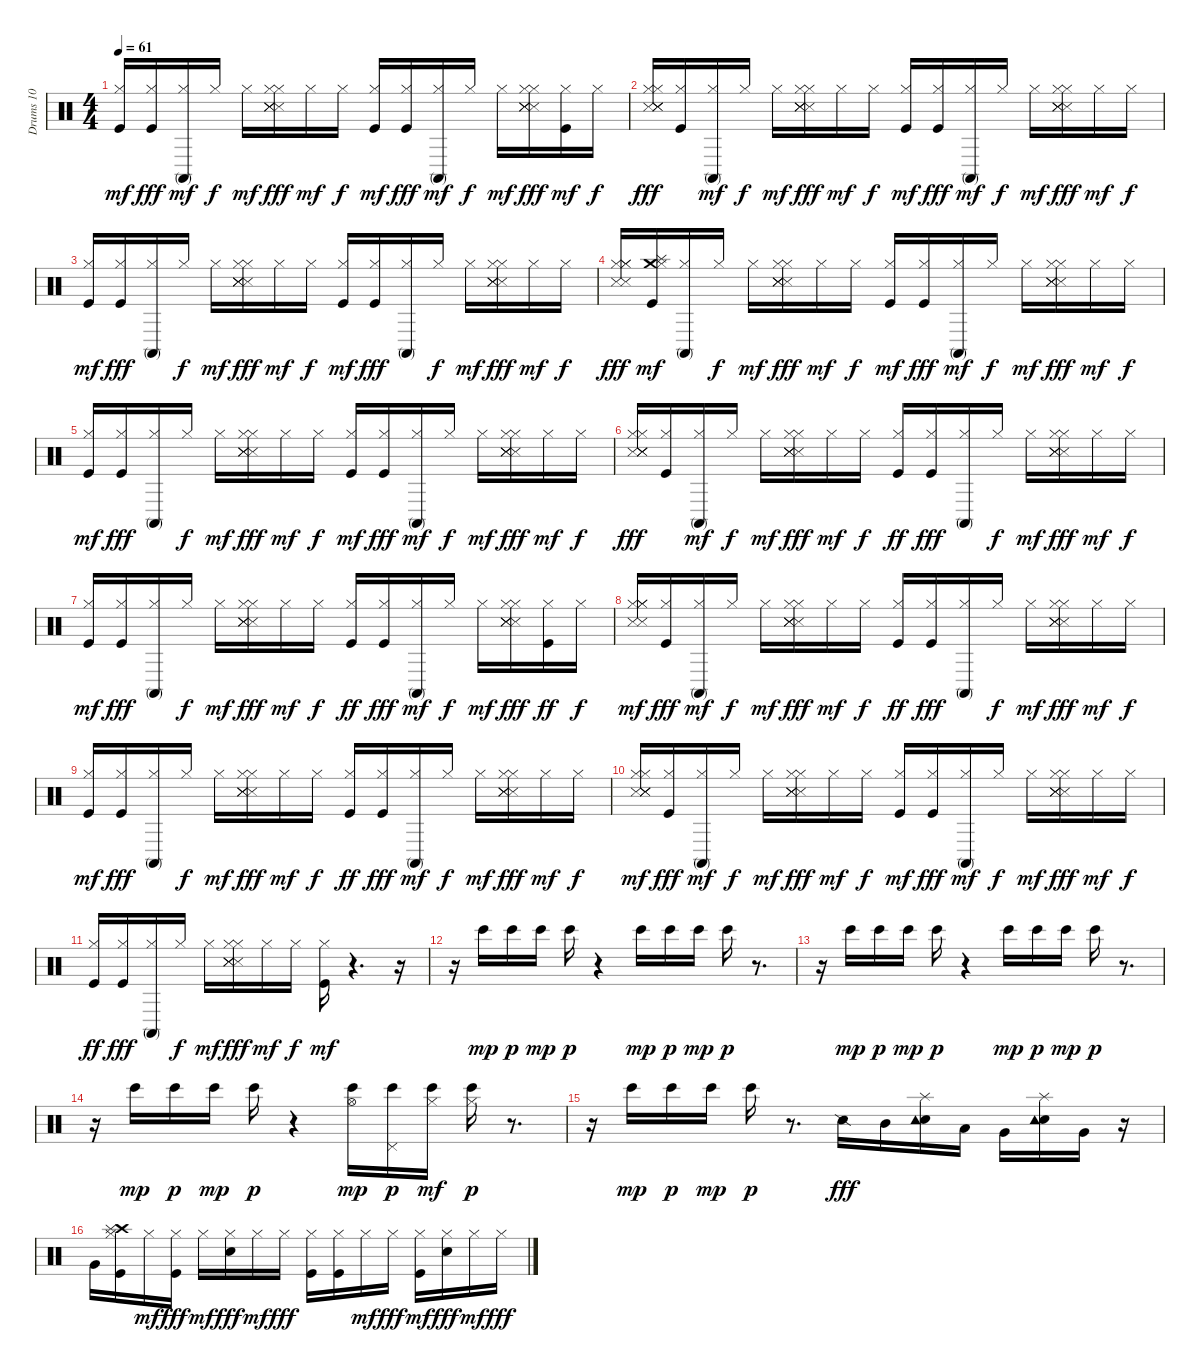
\track ("Drums 10" "Drums 10") {instrument percussion}
\staff {score}
\articulation defaults
\ts (4 4)
\tempo 61
\clef neutral
\ks c
("Kick (hit)" "Hi-Hat (closed)").16{dy mf} ("Kick (hit)" "Hi-Hat (closed)").16{dy fff} ("Conga high (mute)" "Hi-Hat (closed)").16{dy mf} "Hi-Hat (closed)".16{dy f} "Hi-Hat (closed)".16{dy mf} ("Snare (side stick) 3" "Snare (side stick) 3" "Snare (side stick) 3" "Snare (side stick) 3" "Hi-Hat (closed)" "Hi-Hat (closed)").16{dy fff} "Hi-Hat (closed)".16{dy mf} "Hi-Hat (closed)".16{dy f} ("Kick (hit)" "Hi-Hat (closed)").16{dy mf} ("Kick (hit)" "Hi-Hat (closed)").16{dy fff} ("Conga high (mute)" "Hi-Hat (closed)").16{dy mf} "Hi-Hat (closed)".16{dy f} "Hi-Hat (closed)".16{dy mf} ("Snare (side stick) 3" "Snare (side stick) 3" "Snare (side stick) 3" "Snare (side stick) 3" "Hi-Hat (closed)" "Hi-Hat (closed)").16{dy fff} ("Kick (hit)" "Hi-Hat (closed)").16{dy mf} "Hi-Hat (closed)".16{dy f} |
("Snare (side stick) 3" "Snare (side stick) 3" "Snare (side stick) 3" "Snare (side stick) 3" "Hi-Hat (closed)" "Hi-Hat (closed)").16{dy fff} ("Kick (hit)" "Hi-Hat (closed)").16 ("Conga high (mute)" "Hi-Hat (closed)").16{dy mf} "Hi-Hat (closed)".16{dy f} "Hi-Hat (closed)".16{dy mf} ("Snare (side stick) 3" "Snare (side stick) 3" "Snare (side stick) 3" "Snare (side stick) 3" "Hi-Hat (closed)" "Hi-Hat (closed)").16{dy fff} "Hi-Hat (closed)".16{dy mf} "Hi-Hat (closed)".16{dy f} ("Kick (hit)" "Hi-Hat (closed)").16{dy mf} ("Kick (hit)" "Hi-Hat (closed)").16{dy fff} ("Conga high (mute)" "Hi-Hat (closed)").16{dy mf} "Hi-Hat (closed)".16{dy f} "Hi-Hat (closed)".16{dy mf} ("Snare (side stick) 3" "Snare (side stick) 3" "Snare (side stick) 3" "Snare (side stick) 3" "Hi-Hat (closed)" "Hi-Hat (closed)").16{dy fff} "Hi-Hat (closed)".16{dy mf} "Hi-Hat (closed)".16{dy f} |
("Kick (hit)" "Hi-Hat (closed)").16{dy mf} ("Hi-Hat (closed)" "Kick (hit)").16{dy fff} ("Hi-Hat (closed)" "Conga high (mute)").16 "Hi-Hat (closed)".16{dy f} "Hi-Hat (closed)".16{dy mf} ("Snare (side stick) 3" "Snare (side stick) 3" "Snare (side stick) 3" "Snare (side stick) 3" "Hi-Hat (closed)" "Hi-Hat (closed)").16{dy fff} "Hi-Hat (closed)".16{dy mf} "Hi-Hat (closed)".16{dy f} ("Kick (hit)" "Hi-Hat (closed)").16{dy mf} ("Hi-Hat (closed)" "Kick (hit)").16{dy fff} ("Hi-Hat (closed)" "Conga high (mute)").16 "Hi-Hat (closed)".16{dy f} "Hi-Hat (closed)".16{dy mf} ("Snare (side stick) 3" "Snare (side stick) 3" "Snare (side stick) 3" "Snare (side stick) 3" "Hi-Hat (closed)" "Hi-Hat (closed)").16{dy fff} "Hi-Hat (closed)".16{dy mf} "Hi-Hat (closed)".16{dy f} |
("Snare (side stick) 3" "Snare (side stick) 3" "Hi-Hat (closed)" "Hi-Hat (closed)" "Hi-Hat (closed)").16{dy fff} ("Kick (hit)" "Crash medium (hit)" "Splash (hit)" "Hi-Hat (closed)").16{dy mf} ("Conga high (mute)" "Hi-Hat (closed)").16 "Hi-Hat (closed)".16{dy f} "Hi-Hat (closed)".16{dy mf} ("Snare (side stick) 3" "Snare (side stick) 3" "Hi-Hat (closed)" "Hi-Hat (closed)" "Snare (side stick) 3" "Snare (side stick) 3").16{dy fff} "Hi-Hat (closed)".16{dy mf} "Hi-Hat (closed)".16{dy f} ("Kick (hit)" "Hi-Hat (closed)").16{dy mf} ("Kick (hit)" "Hi-Hat (closed)").16{dy fff} ("Conga high (mute)" "Hi-Hat (closed)").16{dy mf} "Hi-Hat (closed)".16{dy f} "Hi-Hat (closed)".16{dy mf} ("Hi-Hat (closed)" "Snare (side stick) 3" "Snare (side stick) 3" "Snare (side stick) 3" "Snare (side stick) 3" "Hi-Hat (closed)").16{dy fff} "Hi-Hat (closed)".16{dy mf} "Hi-Hat (closed)".16{dy f} |
("Kick (hit)" "Hi-Hat (closed)").16{dy mf} ("Kick (hit)" "Hi-Hat (closed)").16{dy fff} ("Hi-Hat (closed)" "Conga high (mute)").16 "Hi-Hat (closed)".16{dy f} "Hi-Hat (closed)".16{dy mf} ("Hi-Hat (closed)" "Snare (side stick) 3" "Snare (side stick) 3" "Snare (side stick) 3" "Snare (side stick) 3" "Hi-Hat (closed)").16{dy fff} "Hi-Hat (closed)".16{dy mf} "Hi-Hat (closed)".16{dy f} ("Kick (hit)" "Hi-Hat (closed)").16{dy mf} ("Hi-Hat (closed)" "Kick (hit)").16{dy fff} ("Conga high (mute)" "Hi-Hat (closed)").16{dy mf} "Hi-Hat (closed)".16{dy f} "Hi-Hat (closed)".16{dy mf} ("Hi-Hat (closed)" "Snare (side stick) 3" "Snare (side stick) 3" "Snare (side stick) 3" "Snare (side stick) 3" "Hi-Hat (closed)").16{dy fff} "Hi-Hat (closed)".16{dy mf} "Hi-Hat (closed)".16{dy f} |
("Hi-Hat (closed)" "Snare (side stick) 3" "Snare (side stick) 3" "Snare (side stick) 3" "Snare (side stick) 3" "Hi-Hat (closed)").16{dy fff} ("Hi-Hat (closed)" "Kick (hit)").16 ("Conga high (mute)" "Hi-Hat (closed)").16{dy mf} "Hi-Hat (closed)".16{dy f} "Hi-Hat (closed)".16{dy mf} ("Snare (side stick) 3" "Snare (side stick) 3" "Snare (side stick) 3" "Snare (side stick) 3" "Hi-Hat (closed)" "Hi-Hat (closed)").16{dy fff} "Hi-Hat (closed)".16{dy mf} "Hi-Hat (closed)".16{dy f} ("Hi-Hat (closed)" "Kick (hit)").16{dy ff} ("Hi-Hat (closed)" "Kick (hit)").16{dy fff} ("Hi-Hat (closed)" "Conga high (mute)").16 "Hi-Hat (closed)".16{dy f} "Hi-Hat (closed)".16{dy mf} ("Hi-Hat (closed)" "Snare (side stick) 3" "Snare (side stick) 3" "Snare (side stick) 3" "Snare (side stick) 3" "Hi-Hat (closed)").16{dy fff} "Hi-Hat (closed)".16{dy mf} "Hi-Hat (closed)".16{dy f} |
("Kick (hit)" "Hi-Hat (closed)").16{dy mf} ("Kick (hit)" "Hi-Hat (closed)").16{dy fff} ("Hi-Hat (closed)" "Conga high (mute)").16 "Hi-Hat (closed)".16{dy f} "Hi-Hat (closed)".16{dy mf} ("Hi-Hat (closed)" "Snare (side stick) 3" "Snare (side stick) 3" "Snare (side stick) 3" "Snare (side stick) 3" "Hi-Hat (closed)").16{dy fff} "Hi-Hat (closed)".16{dy mf} "Hi-Hat (closed)".16{dy f} ("Hi-Hat (closed)" "Kick (hit)").16{dy ff} ("Kick (hit)" "Hi-Hat (closed)").16{dy fff} ("Conga high (mute)" "Hi-Hat (closed)").16{dy mf} "Hi-Hat (closed)".16{dy f} "Hi-Hat (closed)".16{dy mf} ("Snare (side stick) 3" "Hi-Hat (closed)" "Snare (side stick) 3" "Snare (side stick) 3" "Snare (side stick) 3" "Hi-Hat (closed)").16{dy fff} ("Hi-Hat (closed)" "Kick (hit)").16{dy ff} "Hi-Hat (closed)".16{dy f} |
("Hi-Hat (closed)" "Snare (side stick) 3" "Snare (side stick) 3" "Hi-Hat (closed)" "Hi-Hat (closed)").16{dy mf} ("Hi-Hat (closed)" "Kick (hit)").16{dy fff} ("Conga high (mute)" "Hi-Hat (closed)").16{dy mf} "Hi-Hat (closed)".16{dy f} "Hi-Hat (closed)".16{dy mf} ("Hi-Hat (closed)" "Hi-Hat (closed)" "Snare (side stick) 3" "Snare (side stick) 3" "Snare (side stick) 3" "Snare (side stick) 3").16{dy fff} "Hi-Hat (closed)".16{dy mf} "Hi-Hat (closed)".16{dy f} ("Hi-Hat (closed)" "Kick (hit)").16{dy ff} ("Hi-Hat (closed)" "Kick (hit)").16{dy fff} ("Hi-Hat (closed)" "Conga high (mute)").16 "Hi-Hat (closed)".16{dy f} "Hi-Hat (closed)".16{dy mf} ("Snare (side stick) 3" "Snare (side stick) 3" "Hi-Hat (closed)" "Snare (side stick) 3" "Snare (side stick) 3" "Hi-Hat (closed)").16{dy fff} "Hi-Hat (closed)".16{dy mf} "Hi-Hat (closed)".16{dy f} |
("Kick (hit)" "Hi-Hat (closed)").16{dy mf} ("Kick (hit)" "Hi-Hat (closed)").16{dy fff} ("Hi-Hat (closed)" "Conga high (mute)").16 "Hi-Hat (closed)".16{dy f} "Hi-Hat (closed)".16{dy mf} ("Snare (side stick) 3" "Snare (side stick) 3" "Snare (side stick) 3" "Snare (side stick) 3" "Hi-Hat (closed)" "Hi-Hat (closed)").16{dy fff} "Hi-Hat (closed)".16{dy mf} "Hi-Hat (closed)".16{dy f} ("Hi-Hat (closed)" "Kick (hit)").16{dy ff} ("Kick (hit)" "Hi-Hat (closed)").16{dy fff} ("Conga high (mute)" "Hi-Hat (closed)").16{dy mf} "Hi-Hat (closed)".16{dy f} "Hi-Hat (closed)".16{dy mf} ("Hi-Hat (closed)" "Snare (side stick) 3" "Snare (side stick) 3" "Snare (side stick) 3" "Snare (side stick) 3" "Hi-Hat (closed)").16{dy fff} "Hi-Hat (closed)".16{dy mf} "Hi-Hat (closed)".16{dy f} |
("Hi-Hat (closed)" "Snare (side stick) 3" "Snare (side stick) 3" "Snare (side stick) 3" "Snare (side stick) 3" "Hi-Hat (closed)").16{dy mf} ("Kick (hit)" "Hi-Hat (closed)").16{dy fff} ("Conga high (mute)" "Hi-Hat (closed)").16{dy mf} "Hi-Hat (closed)".16{dy f} "Hi-Hat (closed)".16{dy mf} ("Snare (side stick) 3" "Hi-Hat (closed)" "Hi-Hat (closed)" "Snare (side stick) 3" "Snare (side stick) 3" "Snare (side stick) 3").16{dy fff} "Hi-Hat (closed)".16{dy mf} "Hi-Hat (closed)".16{dy f} ("Kick (hit)" "Hi-Hat (closed)").16{dy mf} ("Hi-Hat (closed)" "Kick (hit)").16{dy fff} ("Conga high (mute)" "Hi-Hat (closed)").16{dy mf} "Hi-Hat (closed)".16{dy f} "Hi-Hat (closed)".16{dy mf} ("Snare (side stick) 3" "Snare (side stick) 3" "Snare (side stick) 3" "Snare (side stick) 3" "Hi-Hat (closed)" "Hi-Hat (closed)").16{dy fff} "Hi-Hat (closed)".16{dy mf} "Hi-Hat (closed)".16{dy f} |
("Hi-Hat (closed)" "Kick (hit)").16{dy ff} ("Kick (hit)" "Hi-Hat (closed)").16{dy fff} ("Hi-Hat (closed)" "Conga high (mute)").16 "Hi-Hat (closed)".16{dy f} "Hi-Hat (closed)".16{dy mf} ("Snare (side stick) 3" "Hi-Hat (closed)" "Snare (side stick) 3" "Snare (side stick) 3" "Snare (side stick) 3" "Hi-Hat (closed)").16{dy fff} "Hi-Hat (closed)".16{dy mf} "Hi-Hat (closed)".16{dy f} ("Kick (hit)" "Hi-Hat (closed)").16{dy mf} r.4{d} r.16 |
r.16 "Bongo High (hit)".16{dy mp} "Bongo High (hit)".16{dy p} "Bongo High (hit)".16{dy mp} "Bongo High (hit)".16{dy p} r.4 "Bongo High (hit)".16{dy mp} "Bongo High (hit)".16{dy p} "Bongo High (hit)".16{dy mp} "Bongo High (hit)".16{dy p} r.8{d} |
r.16 "Bongo High (hit)".16{dy mp} "Bongo High (hit)".16{dy p} "Bongo High (hit)".16{dy mp} "Bongo High (hit)".16{dy p} r.4 "Bongo High (hit)".16{dy mp} "Bongo High (hit)".16{dy p} "Bongo High (hit)".16{dy mp} "Bongo High (hit)".16{dy p} r.8{d} |
r.16 "Bongo High (hit)".16{dy mp} "Bongo High (hit)".16{dy p} "Bongo High (hit)".16{dy mp} "Bongo High (hit)".16{dy p} r.4 ("Hi-Hat (open)" "Bongo High (hit)").16{dy mp volume 16} ("Pedal Hi-Hat (hit)" "Bongo High (hit)").16{dy p} ("Bongo High (hit)" "Hi-Hat (closed)").16{dy mf} ("Hi-Hat (closed)" "Bongo High (hit)").16{dy p} r.8{d} |
r.16 "Bongo High (hit)".16{dy mp} "Bongo High (hit)".16{dy p} "Bongo High (hit)".16{dy mp} "Bongo High (hit)".16{dy p} r.8{d} "Snare (side stick) 2".16{dy fff} "Mid Tom (hit)".16 ("Splash (hit)" "Electric Snare (hit)" "Tambourine (hit)").16 "Low Tom (hit)".16 "Very Low Tom (hit)".16 ("Electric Snare (hit)" "Splash (hit)" "Tambourine (hit)").16 "Very Low Tom (hit)".16 r.16 |
"Very Low Tom (hit)".16 ("Crash high (hit)" "Hi-Hat (closed)" "Kick (hit)" "Splash (hit)").16 "Hi-Hat (closed)".16{dy mf} ("Hi-Hat (closed)" "Kick (hit)").16{dy fff} "Hi-Hat (closed)".16{dy mf} ("Metronome (bell)" "Hi-Hat (closed)").16{dy fff} "Hi-Hat (closed)".16{dy mf} "Hi-Hat (closed)".16{dy fff} ("Hi-Hat (closed)" "Kick (hit)").16 ("Hi-Hat (closed)" "Kick (hit)").16 "Hi-Hat (closed)".16{dy mf} "Hi-Hat (closed)".16{dy fff} ("Kick (hit)" "Hi-Hat (closed)").16{dy mf} ("Hi-Hat (closed)" "Metronome (bell)").16{dy fff} "Hi-Hat (closed)".16{dy mf} "Hi-Hat (closed)".16{dy fff}
